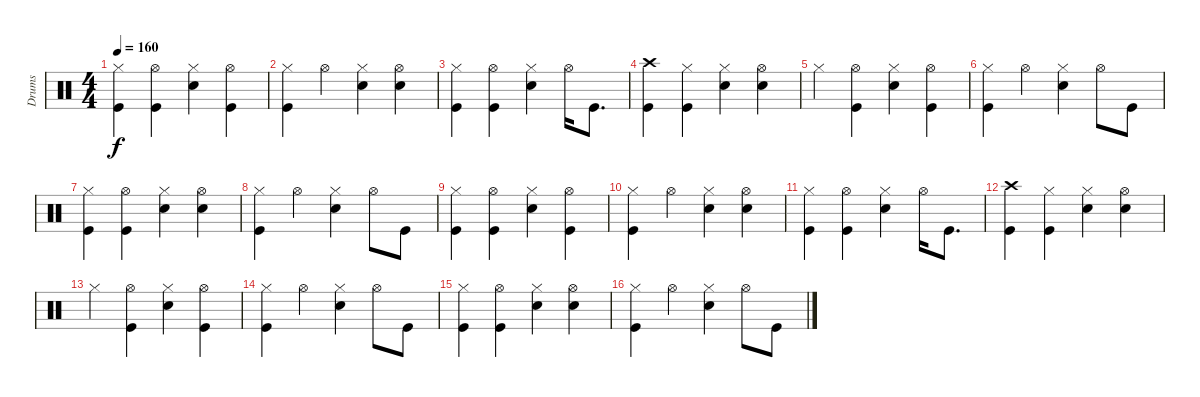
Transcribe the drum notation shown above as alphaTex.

\track ("Drums" "Drums") {instrument percussion}
\staff {score}
\articulation defaults
\ts (4 4)
\tempo 160
\clef neutral
\ks c
("Hi-Hat (closed)" "Kick (hit)").4{dy f} ("Hi-Hat (open)" "Kick (hit)").4 ("Hi-Hat (closed)" "Snare (hit) 2").4 ("Hi-Hat (open)" "Kick (hit)").4 |
("Hi-Hat (closed)" "Kick (hit)").4 "Hi-Hat (open)".4 ("Snare (hit) 2" "Hi-Hat (closed)").4 ("Snare (hit) 2" "Hi-Hat (open)").4 |
("Hi-Hat (closed)" "Kick (hit)").4 ("Hi-Hat (open)" "Kick (hit)").4 ("Hi-Hat (closed)" "Snare (hit) 2").4 "Hi-Hat (open)".16 "Kick (hit)".8{d} |
("Kick (hit)" "Crash high (hit)").4 ("Hi-Hat (closed)" "Kick (hit)").4 ("Hi-Hat (closed)" "Snare (hit) 2").4 ("Snare (hit) 2" "Hi-Hat (open)").4 |
"Hi-Hat (closed)".4 ("Kick (hit)" "Hi-Hat (open)").4 ("Snare (hit) 2" "Hi-Hat (closed)").4 ("Kick (hit)" "Hi-Hat (open)").4 |
("Kick (hit)" "Hi-Hat (closed)").4 "Hi-Hat (open)".4 ("Snare (hit) 2" "Hi-Hat (closed)").4 "Hi-Hat (open)".8 "Kick (hit)".8 |
("Hi-Hat (closed)" "Kick (hit)").4 ("Hi-Hat (open)" "Kick (hit)").4 ("Hi-Hat (closed)" "Snare (hit) 2").4 ("Hi-Hat (open)" "Snare (hit) 2").4 |
("Hi-Hat (closed)" "Kick (hit)").4 "Hi-Hat (open)".4 ("Snare (hit) 2" "Hi-Hat (closed)").4 "Hi-Hat (open)".8 "Kick (hit)".8 |
("Hi-Hat (closed)" "Kick (hit)").4 ("Hi-Hat (open)" "Kick (hit)").4 ("Hi-Hat (closed)" "Snare (hit) 2").4 ("Hi-Hat (open)" "Kick (hit)").4 |
("Hi-Hat (closed)" "Kick (hit)").4 "Hi-Hat (open)".4 ("Snare (hit) 2" "Hi-Hat (closed)").4 ("Snare (hit) 2" "Hi-Hat (open)").4 |
("Hi-Hat (closed)" "Kick (hit)").4 ("Hi-Hat (open)" "Kick (hit)").4 ("Hi-Hat (closed)" "Snare (hit) 2").4 "Hi-Hat (open)".16 "Kick (hit)".8{d} |
("Kick (hit)" "Crash high (hit)").4 ("Hi-Hat (closed)" "Kick (hit)").4 ("Hi-Hat (closed)" "Snare (hit) 2").4 ("Snare (hit) 2" "Hi-Hat (open)").4 |
"Hi-Hat (closed)".4 ("Kick (hit)" "Hi-Hat (open)").4 ("Snare (hit) 2" "Hi-Hat (closed)").4 ("Kick (hit)" "Hi-Hat (open)").4 |
("Kick (hit)" "Hi-Hat (closed)").4 "Hi-Hat (open)".4 ("Snare (hit) 2" "Hi-Hat (closed)").4 "Hi-Hat (open)".8 "Kick (hit)".8 |
("Hi-Hat (closed)" "Kick (hit)").4 ("Hi-Hat (open)" "Kick (hit)").4 ("Hi-Hat (closed)" "Snare (hit) 2").4 ("Hi-Hat (open)" "Snare (hit) 2").4 |
("Hi-Hat (closed)" "Kick (hit)").4 "Hi-Hat (open)".4 ("Snare (hit) 2" "Hi-Hat (closed)").4 "Hi-Hat (open)".8 "Kick (hit)".8
